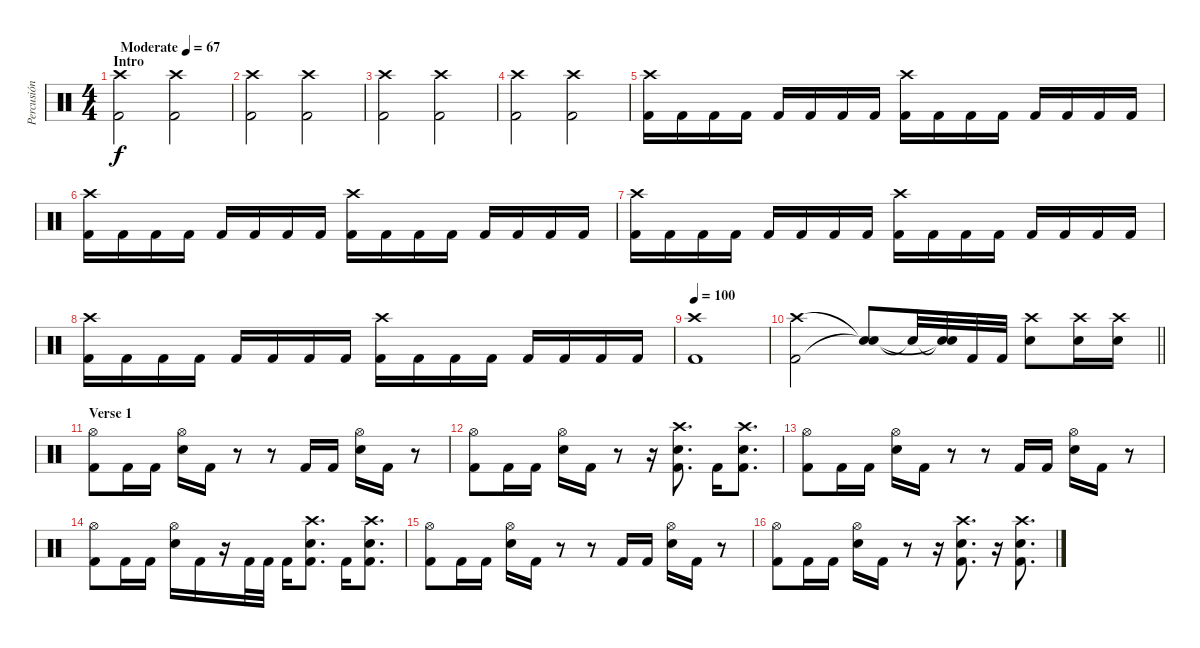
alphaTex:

\track ("Percusión" "Percusión") {instrument percussion}
\staff {score}
\articulation defaults
\ts (4 4)
\section ("" "Intro")
\tempo (67 "Moderate")
\clef neutral
\ks c
("Crash high (hit)" "Kick (hit) 2").2{dy f} ("Crash high (hit)" "Kick (hit) 2").2 |
("Crash high (hit)" "Kick (hit) 2").2 ("Crash high (hit)" "Kick (hit) 2").2 |
("Crash high (hit)" "Kick (hit) 2").2 ("Crash high (hit)" "Kick (hit) 2").2 |
("Crash high (hit)" "Kick (hit) 2").2 ("Crash high (hit)" "Kick (hit) 2").2 |
("Crash high (hit)" "Kick (hit) 2").16 "Kick (hit) 2".16 "Kick (hit) 2".16 "Kick (hit) 2".16 "Kick (hit) 2".16 "Kick (hit) 2".16 "Kick (hit) 2".16 "Kick (hit) 2".16 ("Crash high (hit)" "Kick (hit) 2").16 "Kick (hit) 2".16 "Kick (hit) 2".16 "Kick (hit) 2".16 "Kick (hit) 2".16 "Kick (hit) 2".16 "Kick (hit) 2".16 "Kick (hit) 2".16 |
("Crash high (hit)" "Kick (hit) 2").16 "Kick (hit) 2".16 "Kick (hit) 2".16 "Kick (hit) 2".16 "Kick (hit) 2".16 "Kick (hit) 2".16 "Kick (hit) 2".16 "Kick (hit) 2".16 ("Crash high (hit)" "Kick (hit) 2").16 "Kick (hit) 2".16 "Kick (hit) 2".16 "Kick (hit) 2".16 "Kick (hit) 2".16 "Kick (hit) 2".16 "Kick (hit) 2".16 "Kick (hit) 2".16 |
("Crash high (hit)" "Kick (hit) 2").16 "Kick (hit) 2".16 "Kick (hit) 2".16 "Kick (hit) 2".16 "Kick (hit) 2".16 "Kick (hit) 2".16 "Kick (hit) 2".16 "Kick (hit) 2".16 ("Crash high (hit)" "Kick (hit) 2").16 "Kick (hit) 2".16 "Kick (hit) 2".16 "Kick (hit) 2".16 "Kick (hit) 2".16 "Kick (hit) 2".16 "Kick (hit) 2".16 "Kick (hit) 2".16 |
("Crash high (hit)" "Kick (hit) 2").16 "Kick (hit) 2".16 "Kick (hit) 2".16 "Kick (hit) 2".16 "Kick (hit) 2".16 "Kick (hit) 2".16 "Kick (hit) 2".16 "Kick (hit) 2".16 ("Crash high (hit)" "Kick (hit) 2").16 "Kick (hit) 2".16 "Kick (hit) 2".16 "Kick (hit) 2".16 "Kick (hit) 2".16 "Kick (hit) 2".16 "Kick (hit) 2".16 "Kick (hit) 2".16 |
\tempo 100
("Crash high (hit)" "Kick (hit) 2").1 |
\barLineRight lightlight
("Crash high (hit)" "Kick (hit) 2").2 ("Snare (hit)"{t} "Snare (hit)"{t}).8 "Snare (hit)"{t}.32 ("Snare (hit) 2"{t} "Snare (hit)"{t}).32 "Kick (hit) 2".32 "Kick (hit) 2".32 ("Crash high (hit)" "Snare (hit) 2").8 ("Crash high (hit)" "Snare (hit) 2").16 ("Crash high (hit)" "Snare (hit) 2").16 |
\section ("" "Verse 1")
("Hi-Hat (open)" "Kick (hit) 2").8 "Kick (hit) 2".16 "Kick (hit) 2".16 ("Hi-Hat (open)" "Snare (hit) 2").16 "Kick (hit) 2".16 r.8 r.8 "Kick (hit) 2".16 "Kick (hit) 2".16 ("Hi-Hat (open)" "Snare (hit) 2").16 "Kick (hit) 2".16 r.8 |
("Hi-Hat (open)" "Kick (hit) 2").8 "Kick (hit) 2".16 "Kick (hit) 2".16 ("Hi-Hat (open)" "Snare (hit) 2").16 "Kick (hit) 2".16 r.8 r.16 ("Crash high (hit)" "Snare (hit) 2" "Kick (hit) 2").8{d} "Kick (hit) 2".16 ("Crash high (hit)" "Snare (hit) 2" "Kick (hit) 2").8{d} |
("Hi-Hat (open)" "Kick (hit) 2").8 "Kick (hit) 2".16 "Kick (hit) 2".16 ("Hi-Hat (open)" "Snare (hit) 2").16 "Kick (hit) 2".16 r.8 r.8 "Kick (hit) 2".16 "Kick (hit) 2".16 ("Hi-Hat (open)" "Snare (hit) 2").16 "Kick (hit) 2".16 r.8 |
("Hi-Hat (open)" "Kick (hit) 2").8 "Kick (hit) 2".16 "Kick (hit) 2".16 ("Hi-Hat (open)" "Snare (hit) 2").16 "Kick (hit) 2".16 r.16 "Kick (hit) 2".32 "Kick (hit) 2".32 "Kick (hit) 2".16 ("Crash high (hit)" "Snare (hit) 2" "Kick (hit) 2").8{d} "Kick (hit) 2".16 ("Crash high (hit)" "Snare (hit) 2" "Kick (hit) 2").8{d} |
("Hi-Hat (open)" "Kick (hit) 2").8 "Kick (hit) 2".16 "Kick (hit) 2".16 ("Hi-Hat (open)" "Snare (hit) 2").16 "Kick (hit) 2".16 r.8 r.8 "Kick (hit) 2".16 "Kick (hit) 2".16 ("Hi-Hat (open)" "Snare (hit) 2").16 "Kick (hit) 2".16 r.8 |
("Hi-Hat (open)" "Kick (hit) 2").8 "Kick (hit) 2".16 "Kick (hit) 2".16 ("Hi-Hat (open)" "Snare (hit) 2").16 "Kick (hit) 2".16 r.8 r.16 ("Crash high (hit)" "Snare (hit) 2" "Kick (hit) 2").8{d} r.16 ("Crash high (hit)" "Snare (hit) 2" "Kick (hit) 2").8{d}
